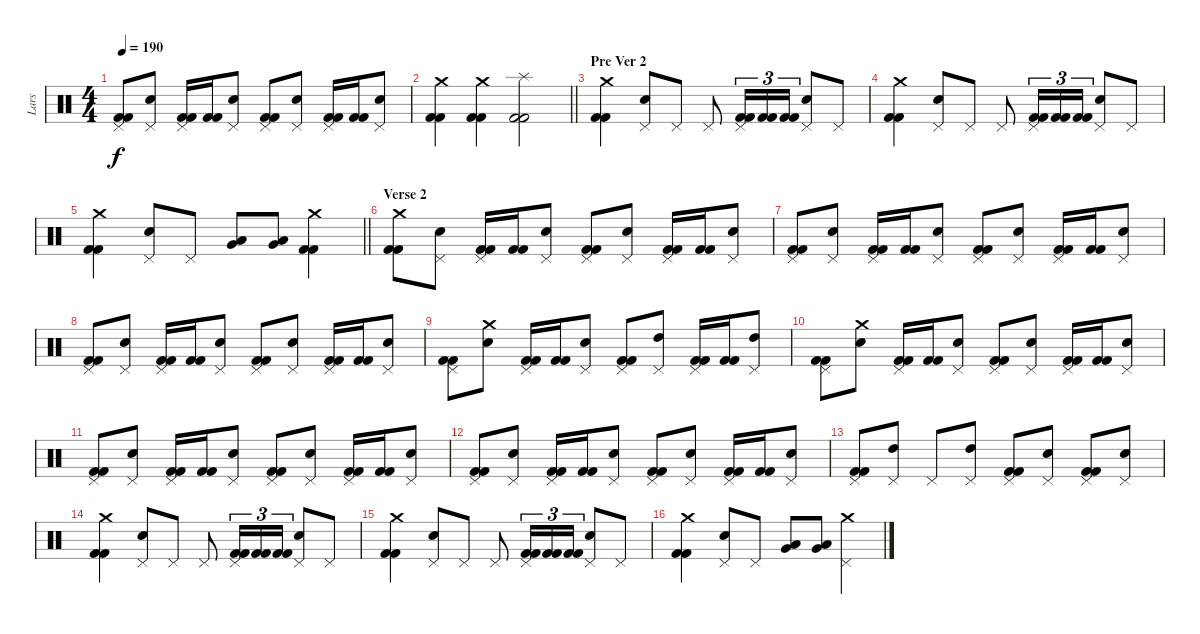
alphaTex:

\track ("Lars" "Lars") {instrument percussion}
\staff {score}
\articulation defaults
\ts (4 4)
\tempo 190
\clef neutral
\ks c
("Pedal Hi-Hat (hit)" "Kick (hit) 2" "Kick (hit) 2").8{dy f} ("Pedal Hi-Hat (hit)" "Electric Snare (hit)").8 ("Pedal Hi-Hat (hit)" "Kick (hit) 2" "Kick (hit) 2").16 ("Kick (hit) 2" "Kick (hit) 2").16 ("Pedal Hi-Hat (hit)" "Electric Snare (hit)").8 ("Pedal Hi-Hat (hit)" "Kick (hit) 2" "Kick (hit) 2").8 ("Pedal Hi-Hat (hit)" "Electric Snare (hit)").8 ("Pedal Hi-Hat (hit)" "Kick (hit) 2" "Kick (hit) 2").16 ("Kick (hit) 2" "Kick (hit) 2").16 ("Pedal Hi-Hat (hit)" "Electric Snare (hit)").8 |
\barLineRight lightlight
("Crash medium (hit)" "Kick (hit) 2" "Kick (hit) 2").4 ("Crash medium (hit)" "Kick (hit) 2" "Kick (hit) 2").4 ("Splash (hit)" "Kick (hit) 2" "Kick (hit) 2").2 |
\section ("" "Pre Ver 2")
("Crash medium (hit)" "Kick (hit) 2" "Kick (hit) 2").4 ("Pedal Hi-Hat (hit)" "Electric Snare (hit)").8 "Pedal Hi-Hat (hit)".8 "Pedal Hi-Hat (hit)".8 ("Pedal Hi-Hat (hit)" "Kick (hit) 2" "Kick (hit) 2").16{tu (3 2)} ("Kick (hit) 2" "Kick (hit) 2").16{tu (3 2)} ("Kick (hit) 2" "Kick (hit) 2").16{tu (3 2)} ("Pedal Hi-Hat (hit)" "Electric Snare (hit)").8 "Pedal Hi-Hat (hit)".8 |
("Crash medium (hit)" "Kick (hit) 2" "Kick (hit) 2").4 ("Pedal Hi-Hat (hit)" "Electric Snare (hit)").8 "Pedal Hi-Hat (hit)".8 "Pedal Hi-Hat (hit)".8 ("Pedal Hi-Hat (hit)" "Kick (hit) 2" "Kick (hit) 2").16{tu (3 2)} ("Kick (hit) 2" "Kick (hit) 2").16{tu (3 2)} ("Kick (hit) 2" "Kick (hit) 2").16{tu (3 2)} ("Pedal Hi-Hat (hit)" "Electric Snare (hit)").8 "Pedal Hi-Hat (hit)".8 |
\barLineRight lightlight
("Crash medium (hit)" "Kick (hit) 2" "Kick (hit) 2").4 ("Pedal Hi-Hat (hit)" "Electric Snare (hit)").8 "Pedal Hi-Hat (hit)".8 ("Very Low Tom (hit)" "Low Tom (hit)").8 ("Very Low Tom (hit)" "Low Tom (hit)").8 ("Crash medium (hit)" "Kick (hit) 2" "Kick (hit) 2").4 |
\section ("" "Verse 2")
("Crash medium (hit)" "Kick (hit) 2" "Kick (hit) 2").8 ("Pedal Hi-Hat (hit)" "Electric Snare (hit)").8 ("Pedal Hi-Hat (hit)" "Kick (hit) 2" "Kick (hit) 2").16 ("Kick (hit) 2" "Kick (hit) 2").16 ("Pedal Hi-Hat (hit)" "Electric Snare (hit)").8 ("Pedal Hi-Hat (hit)" "Kick (hit) 2" "Kick (hit) 2").8 ("Pedal Hi-Hat (hit)" "Electric Snare (hit)").8 ("Pedal Hi-Hat (hit)" "Kick (hit) 2" "Kick (hit) 2").16 ("Kick (hit) 2" "Kick (hit) 2").16 ("Pedal Hi-Hat (hit)" "Electric Snare (hit)").8 |
("Pedal Hi-Hat (hit)" "Kick (hit) 2" "Kick (hit) 2").8 ("Pedal Hi-Hat (hit)" "Electric Snare (hit)").8 ("Pedal Hi-Hat (hit)" "Kick (hit) 2" "Kick (hit) 2").16 ("Kick (hit) 2" "Kick (hit) 2").16 ("Pedal Hi-Hat (hit)" "Electric Snare (hit)").8 ("Pedal Hi-Hat (hit)" "Kick (hit) 2" "Kick (hit) 2").8 ("Pedal Hi-Hat (hit)" "Electric Snare (hit)").8 ("Pedal Hi-Hat (hit)" "Kick (hit) 2" "Kick (hit) 2").16 ("Kick (hit) 2" "Kick (hit) 2").16 ("Pedal Hi-Hat (hit)" "Electric Snare (hit)").8 |
("Pedal Hi-Hat (hit)" "Kick (hit) 2" "Kick (hit) 2").8 ("Pedal Hi-Hat (hit)" "Electric Snare (hit)").8 ("Pedal Hi-Hat (hit)" "Kick (hit) 2" "Kick (hit) 2").16 ("Kick (hit) 2" "Kick (hit) 2").16 ("Pedal Hi-Hat (hit)" "Electric Snare (hit)").8 ("Pedal Hi-Hat (hit)" "Kick (hit) 2" "Kick (hit) 2").8 ("Pedal Hi-Hat (hit)" "Electric Snare (hit)").8 ("Pedal Hi-Hat (hit)" "Kick (hit) 2" "Kick (hit) 2").16 ("Kick (hit) 2" "Kick (hit) 2").16 ("Pedal Hi-Hat (hit)" "Electric Snare (hit)").8 |
("Pedal Hi-Hat (hit)" "Kick (hit) 2" "Kick (hit) 2").8 ("Crash medium (hit)" "Electric Snare (hit)").8 ("Pedal Hi-Hat (hit)" "Kick (hit) 2" "Kick (hit) 2").16 ("Kick (hit) 2" "Kick (hit) 2").16 ("Pedal Hi-Hat (hit)" "Electric Snare (hit)").8 ("Pedal Hi-Hat (hit)" "Kick (hit) 2" "Kick (hit) 2").8 ("Pedal Hi-Hat (hit)" "High Tom (hit)").8 ("Pedal Hi-Hat (hit)" "Kick (hit) 2" "Kick (hit) 2").16 ("Kick (hit) 2" "Kick (hit) 2").16 ("Pedal Hi-Hat (hit)" "High Tom (hit)").8 |
("Pedal Hi-Hat (hit)" "Kick (hit) 2" "Kick (hit) 2").8 ("Crash medium (hit)" "Electric Snare (hit)").8 ("Pedal Hi-Hat (hit)" "Kick (hit) 2" "Kick (hit) 2").16 ("Kick (hit) 2" "Kick (hit) 2").16 ("Pedal Hi-Hat (hit)" "Electric Snare (hit)").8 ("Pedal Hi-Hat (hit)" "Kick (hit) 2" "Kick (hit) 2").8 ("Pedal Hi-Hat (hit)" "Electric Snare (hit)").8 ("Pedal Hi-Hat (hit)" "Kick (hit) 2" "Kick (hit) 2").16 ("Kick (hit) 2" "Kick (hit) 2").16 ("Pedal Hi-Hat (hit)" "Electric Snare (hit)").8 |
("Pedal Hi-Hat (hit)" "Kick (hit) 2" "Kick (hit) 2").8 ("Pedal Hi-Hat (hit)" "Electric Snare (hit)").8 ("Pedal Hi-Hat (hit)" "Kick (hit) 2" "Kick (hit) 2").16 ("Kick (hit) 2" "Kick (hit) 2").16 ("Pedal Hi-Hat (hit)" "Electric Snare (hit)").8 ("Pedal Hi-Hat (hit)" "Kick (hit) 2" "Kick (hit) 2").8 ("Pedal Hi-Hat (hit)" "Electric Snare (hit)").8 ("Pedal Hi-Hat (hit)" "Kick (hit) 2" "Kick (hit) 2").16 ("Kick (hit) 2" "Kick (hit) 2").16 ("Pedal Hi-Hat (hit)" "Electric Snare (hit)").8 |
("Pedal Hi-Hat (hit)" "Kick (hit) 2" "Kick (hit) 2").8 ("Pedal Hi-Hat (hit)" "Electric Snare (hit)").8 ("Pedal Hi-Hat (hit)" "Kick (hit) 2" "Kick (hit) 2").16 ("Kick (hit) 2" "Kick (hit) 2").16 ("Pedal Hi-Hat (hit)" "Electric Snare (hit)").8 ("Pedal Hi-Hat (hit)" "Kick (hit) 2" "Kick (hit) 2").8 ("Pedal Hi-Hat (hit)" "Electric Snare (hit)").8 ("Pedal Hi-Hat (hit)" "Kick (hit) 2" "Kick (hit) 2").16 ("Kick (hit) 2" "Kick (hit) 2").16 ("Pedal Hi-Hat (hit)" "Electric Snare (hit)").8 |
("Pedal Hi-Hat (hit)" "Kick (hit) 2" "Kick (hit) 2").8 ("Pedal Hi-Hat (hit)" "High Tom (hit)").8 "Pedal Hi-Hat (hit)".8 ("Pedal Hi-Hat (hit)" "High Tom (hit)").8 ("Pedal Hi-Hat (hit)" "Kick (hit) 2" "Kick (hit) 2").8 ("Pedal Hi-Hat (hit)" "Electric Snare (hit)").8 ("Pedal Hi-Hat (hit)" "Kick (hit) 2" "Kick (hit) 2").8 ("Pedal Hi-Hat (hit)" "Electric Snare (hit)").8 |
("Crash medium (hit)" "Kick (hit) 2" "Kick (hit) 2").4 ("Pedal Hi-Hat (hit)" "Electric Snare (hit)").8 "Pedal Hi-Hat (hit)".8 "Pedal Hi-Hat (hit)".8 ("Pedal Hi-Hat (hit)" "Kick (hit) 2" "Kick (hit) 2").16{tu (3 2)} ("Kick (hit) 2" "Kick (hit) 2").16{tu (3 2)} ("Kick (hit) 2" "Kick (hit) 2").16{tu (3 2)} ("Pedal Hi-Hat (hit)" "Electric Snare (hit)").8 "Pedal Hi-Hat (hit)".8 |
("Crash medium (hit)" "Kick (hit) 2" "Kick (hit) 2").4 ("Pedal Hi-Hat (hit)" "Electric Snare (hit)").8 "Pedal Hi-Hat (hit)".8 "Pedal Hi-Hat (hit)".8 ("Pedal Hi-Hat (hit)" "Kick (hit) 2" "Kick (hit) 2").16{tu (3 2)} ("Kick (hit) 2" "Kick (hit) 2").16{tu (3 2)} ("Kick (hit) 2" "Kick (hit) 2").16{tu (3 2)} ("Pedal Hi-Hat (hit)" "Electric Snare (hit)").8 "Pedal Hi-Hat (hit)".8 |
("Crash medium (hit)" "Kick (hit) 2" "Kick (hit) 2").4 ("Pedal Hi-Hat (hit)" "Electric Snare (hit)").8 "Pedal Hi-Hat (hit)".8 ("Low Tom (hit)" "Very Low Tom (hit)").8 ("Low Tom (hit)" "Very Low Tom (hit)").8 ("Pedal Hi-Hat (hit)" "Crash medium (hit)").4
